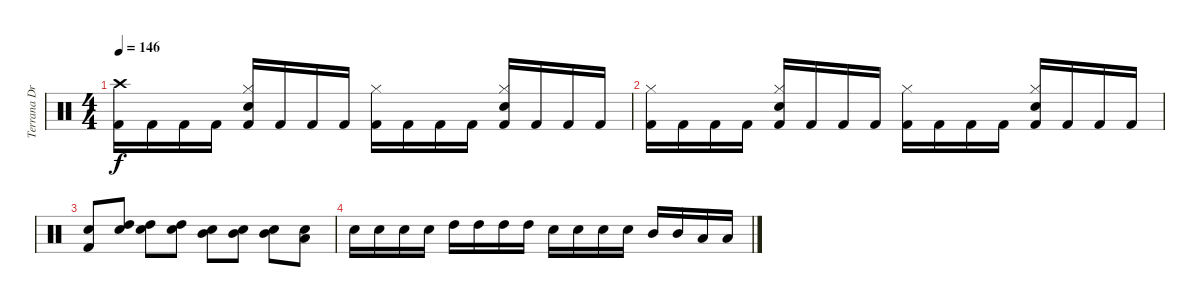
\track ("Terrana Drums" "Terrana Dr") {instrument percussion}
\staff {score}
\articulation defaults
\ts (4 4)
\tempo 146
\clef neutral
\ks c
("Crash high (hit)" "Kick (hit) 2").16{dy f} "Kick (hit) 2".16 "Kick (hit) 2".16 "Kick (hit) 2".16 ("Hi-Hat (closed)" "Electric Snare (hit)" "Kick (hit) 2").16 "Kick (hit) 2".16 "Kick (hit) 2".16 "Kick (hit) 2".16 ("Hi-Hat (closed)" "Kick (hit) 2").16 "Kick (hit) 2".16 "Kick (hit) 2".16 "Kick (hit) 2".16 ("Hi-Hat (closed)" "Electric Snare (hit)" "Kick (hit) 2").16 "Kick (hit) 2".16 "Kick (hit) 2".16 "Kick (hit) 2".16 |
("Hi-Hat (closed)" "Kick (hit) 2").16 "Kick (hit) 2".16 "Kick (hit) 2".16 "Kick (hit) 2".16 ("Hi-Hat (closed)" "Electric Snare (hit)" "Kick (hit) 2").16 "Kick (hit) 2".16 "Kick (hit) 2".16 "Kick (hit) 2".16 ("Hi-Hat (closed)" "Kick (hit) 2").16 "Kick (hit) 2".16 "Kick (hit) 2".16 "Kick (hit) 2".16 ("Hi-Hat (closed)" "Electric Snare (hit)" "Kick (hit) 2").16 "Kick (hit) 2".16 "Kick (hit) 2".16 "Kick (hit) 2".16 |
("Electric Snare (hit)" "Kick (hit) 2").8 ("High Tom (hit)" "Electric Snare (hit)").8 ("High Tom (hit)" "Electric Snare (hit)").8 ("High Tom (hit)" "Electric Snare (hit)").8 ("Mid Tom (hit)" "Electric Snare (hit)").8 ("Mid Tom (hit)" "Electric Snare (hit)").8 ("Mid Tom (hit)" "Electric Snare (hit)").8 ("Low Tom (hit)" "Electric Snare (hit)").8 |
"Electric Snare (hit)".16 "Electric Snare (hit)".16 "Electric Snare (hit)".16 "Electric Snare (hit)".16 "High Tom (hit)".16 "High Tom (hit)".16 "High Tom (hit)".16 "High Tom (hit)".16 "Electric Snare (hit)".16 "Electric Snare (hit)".16 "Electric Snare (hit)".16 "Electric Snare (hit)".16 "Mid Tom (hit)".16 "Mid Tom (hit)".16 "Low Tom (hit)".16 "Low Tom (hit)".16
